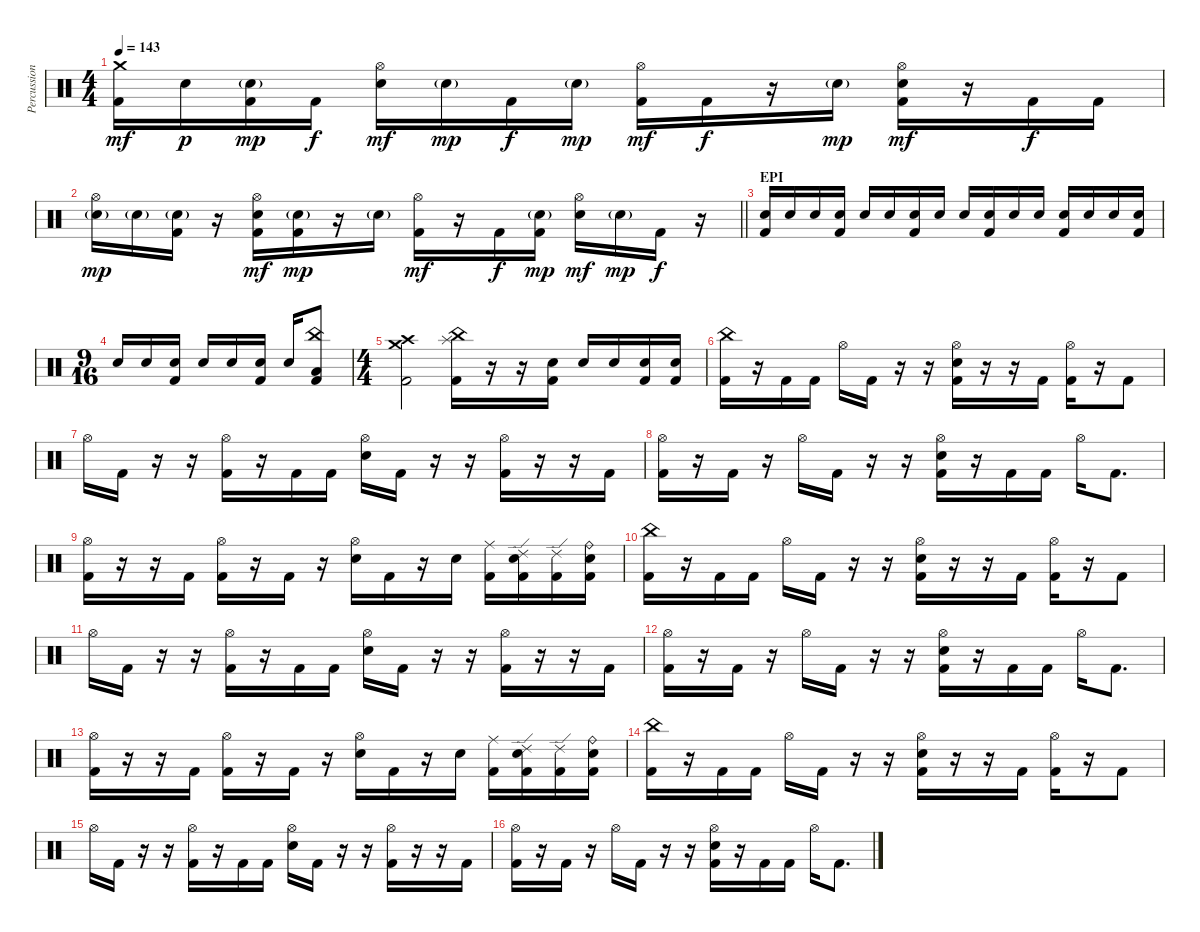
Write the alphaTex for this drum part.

\track ("Percussion" "Percussion") {instrument percussion}
\staff {score}
\articulation defaults
\ts (4 4)
\tempo 143
\clef neutral
\ks c
("Crash medium (hit)" "Kick (hit) 2").16{dy mf} "Electric Snare (hit)".16{dy p} ("Electric Snare (hit)"{g} "Kick (hit) 2").16{dy mp} "Kick (hit) 2".16{dy f} ("Hi-Hat (open)" "Electric Snare (hit)").16{dy mf} "Electric Snare (hit)"{g}.16{dy mp} "Kick (hit) 2".16{dy f} "Electric Snare (hit)"{g}.16{dy mp} ("Hi-Hat (open)" "Kick (hit) 2").16{dy mf} "Kick (hit) 2".16{dy f} r.16 "Electric Snare (hit)"{g}.16{dy mp} ("Hi-Hat (open)" "Electric Snare (hit)" "Kick (hit) 2").16{dy mf} r.16 "Kick (hit) 2".16{dy f} "Kick (hit) 2".16 |
\barLineRight lightlight
("Hi-Hat (open)" "Electric Snare (hit)"{g}).16{dy mp} "Electric Snare (hit)"{g}.16 ("Electric Snare (hit)"{g} "Kick (hit) 2").16 r.16 ("Hi-Hat (open)" "Electric Snare (hit)" "Kick (hit) 2").16{dy mf} ("Electric Snare (hit)"{g} "Kick (hit) 2").16{dy mp} r.16 "Electric Snare (hit)"{g}.16 ("Hi-Hat (open)" "Kick (hit) 2").16{dy mf} r.16 "Kick (hit) 2".16{dy f} ("Electric Snare (hit)"{g} "Kick (hit) 2").16{dy mp} ("Hi-Hat (open)" "Electric Snare (hit)").16{dy mf} "Electric Snare (hit)"{g}.16{dy mp} "Kick (hit) 2".16{dy f} r.16 |
\section ("" "EPI")
("Electric Snare (hit)" "Kick (hit) 2").16 "Electric Snare (hit)".16{volume 7} "Electric Snare (hit)".16 ("Electric Snare (hit)" "Kick (hit) 2").16{volume 13} "Electric Snare (hit)".16{volume 6} "Electric Snare (hit)".16 ("Electric Snare (hit)" "Kick (hit) 2").16{volume 13} "Electric Snare (hit)".16{volume 5} "Electric Snare (hit)".16 ("Electric Snare (hit)" "Kick (hit) 2").16{volume 12} "Electric Snare (hit)".16{volume 8} "Electric Snare (hit)".16 ("Electric Snare (hit)" "Kick (hit) 2").16{volume 13} "Electric Snare (hit)".16{volume 8} "Electric Snare (hit)".16 ("Electric Snare (hit)" "Kick (hit) 2").16{volume 13} |
\ts (9 16)
"Electric Snare (hit)".16{volume 8} "Electric Snare (hit)".16 ("Electric Snare (hit)" "Kick (hit) 2").16{volume 13} "Electric Snare (hit)".16{volume 10} "Electric Snare (hit)".16 ("Electric Snare (hit)" "Kick (hit) 2").16{volume 13} "Electric Snare (hit)".16 ("China (hit)" "Low Tom (hit)" "Kick (hit) 2").8 |
\ts (4 4)
("Crash high (hit)" "Crash medium (hit)" "Kick (hit) 2").2 ("China (hit)" "Splash (hit)" "Kick (hit) 2").16 r.16 r.16 ("Electric Snare (hit)" "Kick (hit) 2").16 "Electric Snare (hit)".16{volume 9} "Electric Snare (hit)".16 ("Electric Snare (hit)" "Kick (hit) 2").16{volume 13} ("Electric Snare (hit)" "Kick (hit) 2").16 |
("China (hit)" "Kick (hit) 2").16 r.16 "Kick (hit) 2".16 "Kick (hit) 2".16 "Hi-Hat (open)".16 "Kick (hit) 2".16 r.16 r.16 ("Hi-Hat (open)" "Electric Snare (hit)" "Kick (hit) 2").16 r.16 r.16 "Kick (hit) 2".16 ("Hi-Hat (open)" "Kick (hit) 2").16 r.16 "Kick (hit) 2".8 |
"Hi-Hat (open)".16 "Kick (hit) 2".16 r.16 r.16 ("Hi-Hat (open)" "Kick (hit) 2").16 r.16 "Kick (hit) 2".16 "Kick (hit) 2".16 ("Hi-Hat (open)" "Electric Snare (hit)").16 "Kick (hit) 2".16 r.16 r.16 ("Hi-Hat (open)" "Kick (hit) 2").16 r.16 r.16 "Kick (hit) 2".16 |
("Hi-Hat (open)" "Kick (hit) 2").16 r.16 "Kick (hit) 2".16 r.16 "Hi-Hat (open)".16 "Kick (hit) 2".16 r.16 r.16 ("Hi-Hat (open)" "Electric Snare (hit)" "Kick (hit) 2").16 r.16 "Kick (hit) 2".16 "Kick (hit) 2".16 "Hi-Hat (open)".16 "Kick (hit) 2".8{d} |
("Hi-Hat (open)" "Kick (hit) 2").16 r.16 r.16 "Kick (hit) 2".16 ("Hi-Hat (open)" "Kick (hit) 2").16 r.16 "Kick (hit) 2".16 r.16 ("Hi-Hat (open)" "Electric Snare (hit)").16 "Kick (hit) 2".16 r.16 "Electric Snare (hit)".16 ("Ride (middle)" "Kick (hit) 2").16 ("Ride (edge) 2" "Electric Snare (hit)" "Kick (hit) 2").16 ("Ride (edge) 2" "Kick (hit) 2").16 ("Ride (bell)" "Electric Snare (hit)" "Kick (hit) 2").16 |
("China (hit)" "Kick (hit) 2").16 r.16 "Kick (hit) 2".16 "Kick (hit) 2".16 "Hi-Hat (open)".16 "Kick (hit) 2".16 r.16 r.16 ("Hi-Hat (open)" "Electric Snare (hit)" "Kick (hit) 2").16 r.16 r.16 "Kick (hit) 2".16 ("Hi-Hat (open)" "Kick (hit) 2").16 r.16 "Kick (hit) 2".8 |
"Hi-Hat (open)".16 "Kick (hit) 2".16 r.16 r.16 ("Hi-Hat (open)" "Kick (hit) 2").16 r.16 "Kick (hit) 2".16 "Kick (hit) 2".16 ("Hi-Hat (open)" "Electric Snare (hit)").16 "Kick (hit) 2".16 r.16 r.16 ("Hi-Hat (open)" "Kick (hit) 2").16 r.16 r.16 "Kick (hit) 2".16 |
("Hi-Hat (open)" "Kick (hit) 2").16 r.16 "Kick (hit) 2".16 r.16 "Hi-Hat (open)".16 "Kick (hit) 2".16 r.16 r.16 ("Hi-Hat (open)" "Electric Snare (hit)" "Kick (hit) 2").16 r.16 "Kick (hit) 2".16 "Kick (hit) 2".16 "Hi-Hat (open)".16 "Kick (hit) 2".8{d} |
("Hi-Hat (open)" "Kick (hit) 2").16 r.16 r.16 "Kick (hit) 2".16 ("Hi-Hat (open)" "Kick (hit) 2").16 r.16 "Kick (hit) 2".16 r.16 ("Hi-Hat (open)" "Electric Snare (hit)").16 "Kick (hit) 2".16 r.16 "Electric Snare (hit)".16 ("Ride (middle)" "Kick (hit) 2").16 ("Ride (edge) 2" "Electric Snare (hit)" "Kick (hit) 2").16 ("Ride (edge) 2" "Kick (hit) 2").16 ("Ride (bell)" "Electric Snare (hit)" "Kick (hit) 2").16 |
("China (hit)" "Kick (hit) 2").16 r.16 "Kick (hit) 2".16 "Kick (hit) 2".16 "Hi-Hat (open)".16 "Kick (hit) 2".16 r.16 r.16 ("Hi-Hat (open)" "Electric Snare (hit)" "Kick (hit) 2").16 r.16 r.16 "Kick (hit) 2".16 ("Hi-Hat (open)" "Kick (hit) 2").16 r.16 "Kick (hit) 2".8 |
"Hi-Hat (open)".16 "Kick (hit) 2".16 r.16 r.16 ("Hi-Hat (open)" "Kick (hit) 2").16 r.16 "Kick (hit) 2".16 "Kick (hit) 2".16 ("Hi-Hat (open)" "Electric Snare (hit)").16 "Kick (hit) 2".16 r.16 r.16 ("Hi-Hat (open)" "Kick (hit) 2").16 r.16 r.16 "Kick (hit) 2".16 |
("Hi-Hat (open)" "Kick (hit) 2").16 r.16 "Kick (hit) 2".16 r.16 "Hi-Hat (open)".16 "Kick (hit) 2".16 r.16 r.16 ("Hi-Hat (open)" "Electric Snare (hit)" "Kick (hit) 2").16 r.16 "Kick (hit) 2".16 "Kick (hit) 2".16 "Hi-Hat (open)".16 "Kick (hit) 2".8{d}
